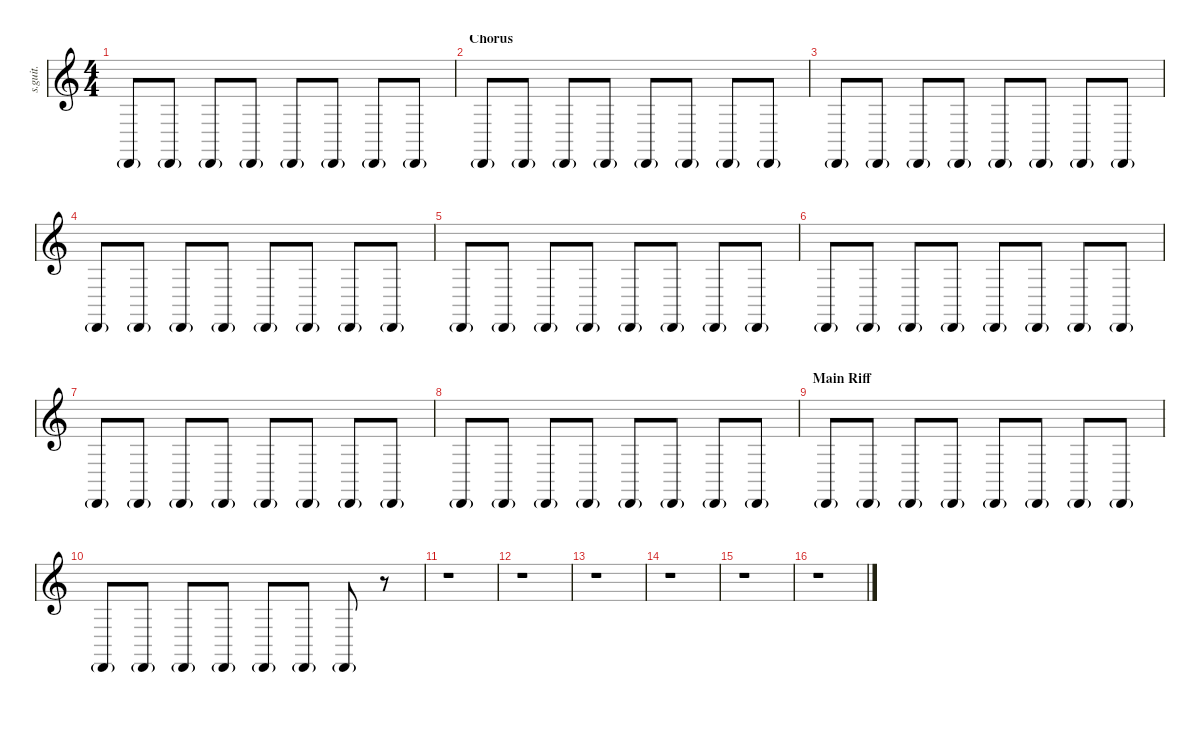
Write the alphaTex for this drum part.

\defaultSystemsLayout 4
\hideDynamics
\bracketExtendMode nobrackets
\track ("Shaker" "s.guit.") {instrument percussion}
\staff {score}
\articulation defaults
\ts (4 4)
\tempo (124 hide)
\clef g2
\ks c "Cabasa (hit)"{g}.8{lyrics (0 "") lyrics (1 "") lyrics (2 "") lyrics (3 "") lyrics (4 "") dy p} "Cabasa (hit)"{g}.8{lyrics (0 "") lyrics (1 "") lyrics (2 "") lyrics (3 "") lyrics (4 "") dy pp} "Cabasa (hit)"{g}.8{lyrics (0 "") lyrics (1 "") lyrics (2 "") lyrics (3 "") lyrics (4 "") dy p} "Cabasa (hit)"{g}.8{lyrics (0 "") lyrics (1 "") lyrics (2 "") lyrics (3 "") lyrics (4 "") dy pp} "Cabasa (hit)"{g}.8{lyrics (0 "") lyrics (1 "") lyrics (2 "") lyrics (3 "") lyrics (4 "") dy p} "Cabasa (hit)"{g}.8{lyrics (0 "") lyrics (1 "") lyrics (2 "") lyrics (3 "") lyrics (4 "") dy pp} "Cabasa (hit)"{g}.8{lyrics (0 "") lyrics (1 "") lyrics (2 "") lyrics (3 "") lyrics (4 "") dy p} "Cabasa (hit)"{g}.8{lyrics (0 "") lyrics (1 "") lyrics (2 "") lyrics (3 "") lyrics (4 "") dy pp}
|
\section ("" "Chorus")
"Cabasa (hit)"{g}.8{lyrics (0 "") lyrics (1 "") lyrics (2 "") lyrics (3 "") lyrics (4 "") dy p} "Cabasa (hit)"{g}.8{lyrics (0 "") lyrics (1 "") lyrics (2 "") lyrics (3 "") lyrics (4 "") dy pp} "Cabasa (hit)"{g}.8{lyrics (0 "") lyrics (1 "") lyrics (2 "") lyrics (3 "") lyrics (4 "") dy p} "Cabasa (hit)"{g}.8{lyrics (0 "") lyrics (1 "") lyrics (2 "") lyrics (3 "") lyrics (4 "") dy pp} "Cabasa (hit)"{g}.8{lyrics (0 "") lyrics (1 "") lyrics (2 "") lyrics (3 "") lyrics (4 "") dy p} "Cabasa (hit)"{g}.8{lyrics (0 "") lyrics (1 "") lyrics (2 "") lyrics (3 "") lyrics (4 "") dy pp} "Cabasa (hit)"{g}.8{lyrics (0 "") lyrics (1 "") lyrics (2 "") lyrics (3 "") lyrics (4 "") dy p} "Cabasa (hit)"{g}.8{lyrics (0 "") lyrics (1 "") lyrics (2 "") lyrics (3 "") lyrics (4 "") dy pp} |
"Cabasa (hit)"{g}.8{lyrics (0 "") lyrics (1 "") lyrics (2 "") lyrics (3 "") lyrics (4 "") dy p} "Cabasa (hit)"{g}.8{lyrics (0 "") lyrics (1 "") lyrics (2 "") lyrics (3 "") lyrics (4 "") dy pp} "Cabasa (hit)"{g}.8{lyrics (0 "") lyrics (1 "") lyrics (2 "") lyrics (3 "") lyrics (4 "") dy p} "Cabasa (hit)"{g}.8{lyrics (0 "") lyrics (1 "") lyrics (2 "") lyrics (3 "") lyrics (4 "") dy pp} "Cabasa (hit)"{g}.8{lyrics (0 "") lyrics (1 "") lyrics (2 "") lyrics (3 "") lyrics (4 "") dy p} "Cabasa (hit)"{g}.8{lyrics (0 "") lyrics (1 "") lyrics (2 "") lyrics (3 "") lyrics (4 "") dy pp} "Cabasa (hit)"{g}.8{lyrics (0 "") lyrics (1 "") lyrics (2 "") lyrics (3 "") lyrics (4 "") dy p} "Cabasa (hit)"{g}.8{lyrics (0 "") lyrics (1 "") lyrics (2 "") lyrics (3 "") lyrics (4 "") dy pp} |
"Cabasa (hit)"{g}.8{lyrics (0 "") lyrics (1 "") lyrics (2 "") lyrics (3 "") lyrics (4 "") dy p} "Cabasa (hit)"{g}.8{lyrics (0 "") lyrics (1 "") lyrics (2 "") lyrics (3 "") lyrics (4 "") dy pp} "Cabasa (hit)"{g}.8{lyrics (0 "") lyrics (1 "") lyrics (2 "") lyrics (3 "") lyrics (4 "") dy p} "Cabasa (hit)"{g}.8{lyrics (0 "") lyrics (1 "") lyrics (2 "") lyrics (3 "") lyrics (4 "") dy pp} "Cabasa (hit)"{g}.8{lyrics (0 "") lyrics (1 "") lyrics (2 "") lyrics (3 "") lyrics (4 "") dy p} "Cabasa (hit)"{g}.8{lyrics (0 "") lyrics (1 "") lyrics (2 "") lyrics (3 "") lyrics (4 "") dy pp} "Cabasa (hit)"{g}.8{lyrics (0 "") lyrics (1 "") lyrics (2 "") lyrics (3 "") lyrics (4 "") dy p} "Cabasa (hit)"{g}.8{lyrics (0 "") lyrics (1 "") lyrics (2 "") lyrics (3 "") lyrics (4 "") dy pp} |
"Cabasa (hit)"{g}.8{lyrics (0 "") lyrics (1 "") lyrics (2 "") lyrics (3 "") lyrics (4 "") dy p} "Cabasa (hit)"{g}.8{lyrics (0 "") lyrics (1 "") lyrics (2 "") lyrics (3 "") lyrics (4 "") dy pp} "Cabasa (hit)"{g}.8{lyrics (0 "") lyrics (1 "") lyrics (2 "") lyrics (3 "") lyrics (4 "") dy p} "Cabasa (hit)"{g}.8{lyrics (0 "") lyrics (1 "") lyrics (2 "") lyrics (3 "") lyrics (4 "") dy pp} "Cabasa (hit)"{g}.8{lyrics (0 "") lyrics (1 "") lyrics (2 "") lyrics (3 "") lyrics (4 "") dy p} "Cabasa (hit)"{g}.8{lyrics (0 "") lyrics (1 "") lyrics (2 "") lyrics (3 "") lyrics (4 "") dy pp} "Cabasa (hit)"{g}.8{lyrics (0 "") lyrics (1 "") lyrics (2 "") lyrics (3 "") lyrics (4 "") dy p} "Cabasa (hit)"{g}.8{lyrics (0 "") lyrics (1 "") lyrics (2 "") lyrics (3 "") lyrics (4 "") dy pp} |
"Cabasa (hit)"{g}.8{lyrics (0 "") lyrics (1 "") lyrics (2 "") lyrics (3 "") lyrics (4 "") dy p} "Cabasa (hit)"{g}.8{lyrics (0 "") lyrics (1 "") lyrics (2 "") lyrics (3 "") lyrics (4 "") dy pp} "Cabasa (hit)"{g}.8{lyrics (0 "") lyrics (1 "") lyrics (2 "") lyrics (3 "") lyrics (4 "") dy p} "Cabasa (hit)"{g}.8{lyrics (0 "") lyrics (1 "") lyrics (2 "") lyrics (3 "") lyrics (4 "") dy pp} "Cabasa (hit)"{g}.8{lyrics (0 "") lyrics (1 "") lyrics (2 "") lyrics (3 "") lyrics (4 "") dy p} "Cabasa (hit)"{g}.8{lyrics (0 "") lyrics (1 "") lyrics (2 "") lyrics (3 "") lyrics (4 "") dy pp} "Cabasa (hit)"{g}.8{lyrics (0 "") lyrics (1 "") lyrics (2 "") lyrics (3 "") lyrics (4 "") dy p} "Cabasa (hit)"{g}.8{lyrics (0 "") lyrics (1 "") lyrics (2 "") lyrics (3 "") lyrics (4 "") dy pp} |
"Cabasa (hit)"{g}.8{lyrics (0 "") lyrics (1 "") lyrics (2 "") lyrics (3 "") lyrics (4 "") dy p} "Cabasa (hit)"{g}.8{lyrics (0 "") lyrics (1 "") lyrics (2 "") lyrics (3 "") lyrics (4 "") dy pp} "Cabasa (hit)"{g}.8{lyrics (0 "") lyrics (1 "") lyrics (2 "") lyrics (3 "") lyrics (4 "") dy p} "Cabasa (hit)"{g}.8{lyrics (0 "") lyrics (1 "") lyrics (2 "") lyrics (3 "") lyrics (4 "") dy pp} "Cabasa (hit)"{g}.8{lyrics (0 "") lyrics (1 "") lyrics (2 "") lyrics (3 "") lyrics (4 "") dy p} "Cabasa (hit)"{g}.8{lyrics (0 "") lyrics (1 "") lyrics (2 "") lyrics (3 "") lyrics (4 "") dy pp} "Cabasa (hit)"{g}.8{lyrics (0 "") lyrics (1 "") lyrics (2 "") lyrics (3 "") lyrics (4 "") dy p} "Cabasa (hit)"{g}.8{lyrics (0 "") lyrics (1 "") lyrics (2 "") lyrics (3 "") lyrics (4 "") dy pp} |
"Cabasa (hit)"{g}.8{lyrics (0 "") lyrics (1 "") lyrics (2 "") lyrics (3 "") lyrics (4 "") dy p} "Cabasa (hit)"{g}.8{lyrics (0 "") lyrics (1 "") lyrics (2 "") lyrics (3 "") lyrics (4 "") dy pp} "Cabasa (hit)"{g}.8{lyrics (0 "") lyrics (1 "") lyrics (2 "") lyrics (3 "") lyrics (4 "") dy p} "Cabasa (hit)"{g}.8{lyrics (0 "") lyrics (1 "") lyrics (2 "") lyrics (3 "") lyrics (4 "") dy pp} "Cabasa (hit)"{g}.8{lyrics (0 "") lyrics (1 "") lyrics (2 "") lyrics (3 "") lyrics (4 "") dy p} "Cabasa (hit)"{g}.8{lyrics (0 "") lyrics (1 "") lyrics (2 "") lyrics (3 "") lyrics (4 "") dy pp} "Cabasa (hit)"{g}.8{lyrics (0 "") lyrics (1 "") lyrics (2 "") lyrics (3 "") lyrics (4 "") dy p} "Cabasa (hit)"{g}.8{lyrics (0 "") lyrics (1 "") lyrics (2 "") lyrics (3 "") lyrics (4 "") dy pp} |
\section ("" "Main Riff")
"Cabasa (hit)"{g}.8{lyrics (0 "") lyrics (1 "") lyrics (2 "") lyrics (3 "") lyrics (4 "") dy p} "Cabasa (hit)"{g}.8{lyrics (0 "") lyrics (1 "") lyrics (2 "") lyrics (3 "") lyrics (4 "") dy pp} "Cabasa (hit)"{g}.8{lyrics (0 "") lyrics (1 "") lyrics (2 "") lyrics (3 "") lyrics (4 "") dy p} "Cabasa (hit)"{g}.8{lyrics (0 "") lyrics (1 "") lyrics (2 "") lyrics (3 "") lyrics (4 "") dy pp} "Cabasa (hit)"{g}.8{lyrics (0 "") lyrics (1 "") lyrics (2 "") lyrics (3 "") lyrics (4 "") dy p} "Cabasa (hit)"{g}.8{lyrics (0 "") lyrics (1 "") lyrics (2 "") lyrics (3 "") lyrics (4 "") dy pp} "Cabasa (hit)"{g}.8{lyrics (0 "") lyrics (1 "") lyrics (2 "") lyrics (3 "") lyrics (4 "") dy p} "Cabasa (hit)"{g}.8{lyrics (0 "") lyrics (1 "") lyrics (2 "") lyrics (3 "") lyrics (4 "") dy pp} |
"Cabasa (hit)"{g}.8{lyrics (0 "") lyrics (1 "") lyrics (2 "") lyrics (3 "") lyrics (4 "") dy p} "Cabasa (hit)"{g}.8{lyrics (0 "") lyrics (1 "") lyrics (2 "") lyrics (3 "") lyrics (4 "") dy pp} "Cabasa (hit)"{g}.8{lyrics (0 "") lyrics (1 "") lyrics (2 "") lyrics (3 "") lyrics (4 "") dy p} "Cabasa (hit)"{g}.8{lyrics (0 "") lyrics (1 "") lyrics (2 "") lyrics (3 "") lyrics (4 "") dy pp} "Cabasa (hit)"{g}.8{lyrics (0 "") lyrics (1 "") lyrics (2 "") lyrics (3 "") lyrics (4 "") dy p} "Cabasa (hit)"{g}.8{lyrics (0 "") lyrics (1 "") lyrics (2 "") lyrics (3 "") lyrics (4 "") dy pp} "Cabasa (hit)"{g}.8{lyrics (0 "") lyrics (1 "") lyrics (2 "") lyrics (3 "") lyrics (4 "") dy p} r.8 |
r.1 |
r.1 |
r.1 |
r.1 |
r.1 |
r.1
